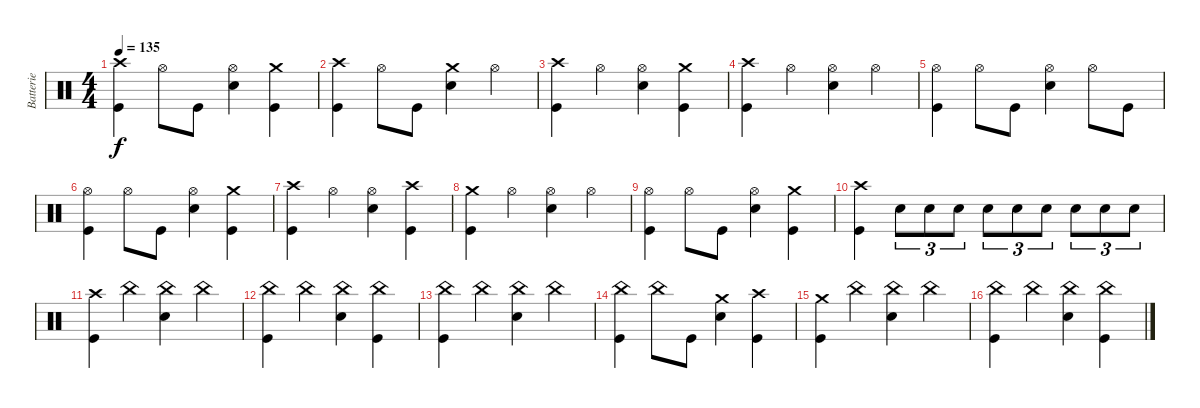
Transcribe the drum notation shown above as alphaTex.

\track ("Batterie" "Batterie") {instrument percussion}
\staff {score}
\articulation defaults
\ts (4 4)
\tempo 135
\clef neutral
\ks c
("Crash high (hit)" "Kick (hit)").4{dy f} "Hi-Hat (open)".8 "Kick (hit)".8 ("Hi-Hat (open)" "Electric Snare (hit)").4 ("Crash medium (hit)" "Kick (hit)").4 |
("Crash high (hit)" "Kick (hit)").4 "Hi-Hat (open)".8 "Kick (hit)".8 ("Crash medium (hit)" "Electric Snare (hit)").4 "Hi-Hat (open)".4 |
("Crash high (hit)" "Kick (hit)").4 "Hi-Hat (open)".4 ("Hi-Hat (open)" "Electric Snare (hit)").4 ("Crash medium (hit)" "Kick (hit)").4 |
("Crash high (hit)" "Kick (hit)").4 "Hi-Hat (open)".4 ("Hi-Hat (open)" "Electric Snare (hit)").4 "Hi-Hat (open)".4 |
("Hi-Hat (open)" "Kick (hit)").4 "Hi-Hat (open)".8 "Kick (hit)".8 ("Hi-Hat (open)" "Electric Snare (hit)").4 "Hi-Hat (open)".8 "Kick (hit)".8 |
("Hi-Hat (open)" "Kick (hit)").4 "Hi-Hat (open)".8 "Kick (hit)".8 ("Hi-Hat (open)" "Electric Snare (hit)").4 ("Crash medium (hit)" "Kick (hit)").4 |
("Crash high (hit)" "Kick (hit)").4 "Hi-Hat (open)".4 ("Hi-Hat (open)" "Electric Snare (hit)").4 ("Crash high (hit)" "Kick (hit)").4 |
("Crash medium (hit)" "Kick (hit)").4 "Hi-Hat (open)".4 ("Hi-Hat (open)" "Electric Snare (hit)").4 "Hi-Hat (open)".4 |
("Hi-Hat (open)" "Kick (hit)").4 "Hi-Hat (open)".8 "Kick (hit)".8 ("Hi-Hat (open)" "Electric Snare (hit)").4 ("Crash medium (hit)" "Kick (hit)").4 |
("Crash high (hit)" "Kick (hit)").4 "Electric Snare (hit)".8{tu (3 2)} "Electric Snare (hit)".8{tu (3 2)} "Electric Snare (hit)".8{tu (3 2)} "Electric Snare (hit)".8{tu (3 2)} "Electric Snare (hit)".8{tu (3 2)} "Electric Snare (hit)".8{tu (3 2)} "Electric Snare (hit)".8{tu (3 2)} "Electric Snare (hit)".8{tu (3 2)} "Electric Snare (hit)".8{tu (3 2)} |
("Crash high (hit)" "Kick (hit)").4 "China (hit)".4 ("China (hit)" "Electric Snare (hit)").4 "China (hit)".4 |
("China (hit)" "Kick (hit)").4 "China (hit)".4 ("China (hit)" "Electric Snare (hit)").4 ("China (hit)" "Kick (hit)").4 |
("China (hit)" "Kick (hit)").4 "China (hit)".4 ("China (hit)" "Electric Snare (hit)").4 "China (hit)".4 |
("China (hit)" "Kick (hit)").4 "China (hit)".8 "Kick (hit)".8 ("Crash medium (hit)" "Electric Snare (hit)").4 ("Crash high (hit)" "Kick (hit)").4 |
("Crash medium (hit)" "Kick (hit)").4 "China (hit)".4 ("China (hit)" "Electric Snare (hit)").4 "China (hit)".4 |
("China (hit)" "Kick (hit)").4 "China (hit)".4 ("China (hit)" "Electric Snare (hit)").4 ("China (hit)" "Kick (hit)").4
